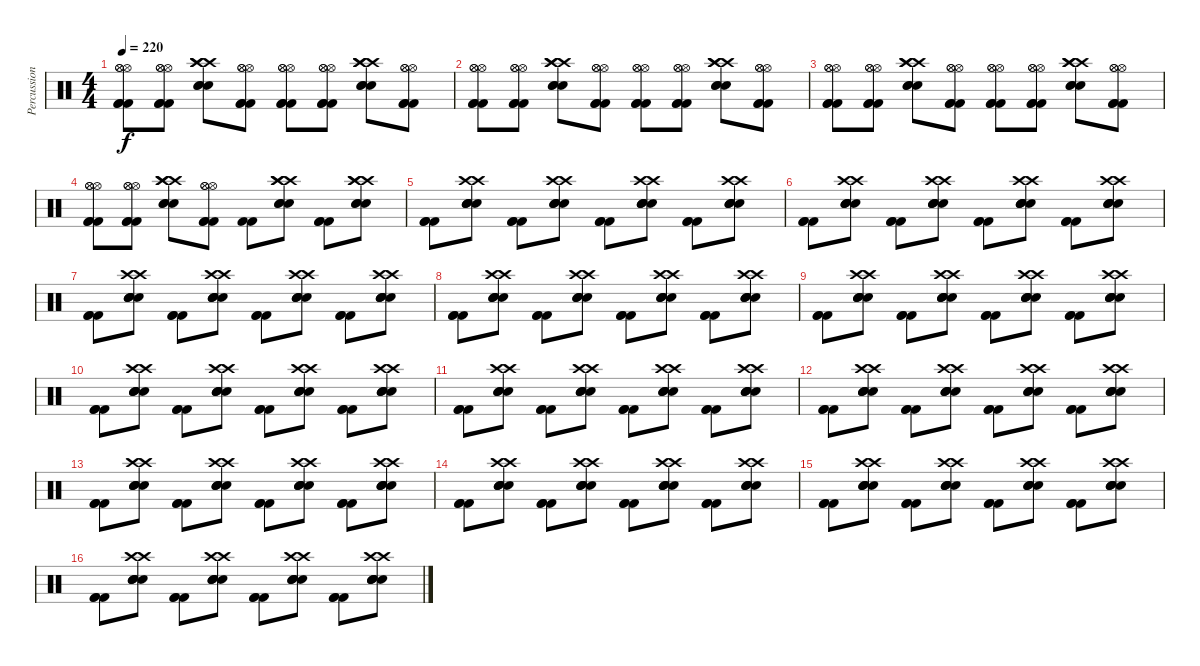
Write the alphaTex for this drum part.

\track ("Percussion" "Percussion") {instrument percussion}
\staff {score}
\articulation defaults
\ts (4 4)
\tempo 220
\clef neutral
\ks c
("Hi-Hat (open)" "Hi-Hat (open)" "Hi-Hat (open)" "Kick (hit) 2" "Kick (hit) 2" "Kick (hit) 2").8{dy f} ("Hi-Hat (open)" "Hi-Hat (open)" "Hi-Hat (open)" "Kick (hit) 2" "Kick (hit) 2" "Kick (hit) 2").8 ("Crash high (hit)" "Crash high (hit)" "Crash high (hit)" "Snare (hit) 2" "Snare (hit) 2" "Snare (hit) 2").8 ("Hi-Hat (open)" "Hi-Hat (open)" "Hi-Hat (open)" "Kick (hit) 2" "Kick (hit) 2" "Kick (hit) 2").8 ("Hi-Hat (open)" "Hi-Hat (open)" "Hi-Hat (open)" "Kick (hit) 2" "Kick (hit) 2" "Kick (hit) 2").8 ("Hi-Hat (open)" "Hi-Hat (open)" "Hi-Hat (open)" "Kick (hit) 2" "Kick (hit) 2" "Kick (hit) 2").8 ("Crash high (hit)" "Crash high (hit)" "Crash high (hit)" "Snare (hit) 2" "Snare (hit) 2" "Snare (hit) 2").8 ("Hi-Hat (open)" "Hi-Hat (open)" "Hi-Hat (open)" "Kick (hit) 2" "Kick (hit) 2" "Kick (hit) 2").8 |
("Hi-Hat (open)" "Hi-Hat (open)" "Hi-Hat (open)" "Kick (hit) 2" "Kick (hit) 2" "Kick (hit) 2").8 ("Hi-Hat (open)" "Hi-Hat (open)" "Hi-Hat (open)" "Kick (hit) 2" "Kick (hit) 2" "Kick (hit) 2").8 ("Crash high (hit)" "Crash high (hit)" "Crash high (hit)" "Snare (hit) 2" "Snare (hit) 2" "Snare (hit) 2").8 ("Hi-Hat (open)" "Hi-Hat (open)" "Hi-Hat (open)" "Kick (hit) 2" "Kick (hit) 2" "Kick (hit) 2").8 ("Hi-Hat (open)" "Hi-Hat (open)" "Hi-Hat (open)" "Kick (hit) 2" "Kick (hit) 2" "Kick (hit) 2").8 ("Hi-Hat (open)" "Hi-Hat (open)" "Hi-Hat (open)" "Kick (hit) 2" "Kick (hit) 2" "Kick (hit) 2").8 ("Crash high (hit)" "Crash high (hit)" "Crash high (hit)" "Snare (hit) 2" "Snare (hit) 2" "Snare (hit) 2").8 ("Hi-Hat (open)" "Hi-Hat (open)" "Hi-Hat (open)" "Kick (hit) 2" "Kick (hit) 2" "Kick (hit) 2").8 |
("Hi-Hat (open)" "Hi-Hat (open)" "Hi-Hat (open)" "Kick (hit) 2" "Kick (hit) 2" "Kick (hit) 2").8 ("Hi-Hat (open)" "Hi-Hat (open)" "Hi-Hat (open)" "Kick (hit) 2" "Kick (hit) 2" "Kick (hit) 2").8 ("Crash high (hit)" "Crash high (hit)" "Crash high (hit)" "Snare (hit) 2" "Snare (hit) 2" "Snare (hit) 2").8 ("Hi-Hat (open)" "Hi-Hat (open)" "Hi-Hat (open)" "Kick (hit) 2" "Kick (hit) 2" "Kick (hit) 2").8 ("Hi-Hat (open)" "Hi-Hat (open)" "Hi-Hat (open)" "Kick (hit) 2" "Kick (hit) 2" "Kick (hit) 2").8 ("Hi-Hat (open)" "Hi-Hat (open)" "Hi-Hat (open)" "Kick (hit) 2" "Kick (hit) 2" "Kick (hit) 2").8 ("Crash high (hit)" "Crash high (hit)" "Crash high (hit)" "Snare (hit) 2" "Snare (hit) 2" "Snare (hit) 2").8 ("Hi-Hat (open)" "Hi-Hat (open)" "Hi-Hat (open)" "Kick (hit) 2" "Kick (hit) 2" "Kick (hit) 2").8 |
("Hi-Hat (open)" "Hi-Hat (open)" "Hi-Hat (open)" "Kick (hit) 2" "Kick (hit) 2" "Kick (hit) 2").8 ("Hi-Hat (open)" "Hi-Hat (open)" "Hi-Hat (open)" "Kick (hit) 2" "Kick (hit) 2" "Kick (hit) 2").8 ("Crash high (hit)" "Crash high (hit)" "Crash high (hit)" "Snare (hit) 2" "Snare (hit) 2" "Snare (hit) 2").8 ("Hi-Hat (open)" "Hi-Hat (open)" "Hi-Hat (open)" "Kick (hit) 2" "Kick (hit) 2" "Kick (hit) 2").8 ("Kick (hit) 2" "Kick (hit) 2").8 ("Crash high (hit)" "Crash high (hit)" "Crash high (hit)" "Snare (hit) 2" "Snare (hit) 2" "Snare (hit) 2").8 ("Kick (hit) 2" "Kick (hit) 2" "Kick (hit) 2").8 ("Crash high (hit)" "Crash high (hit)" "Crash high (hit)" "Snare (hit) 2" "Snare (hit) 2" "Snare (hit) 2").8 |
("Kick (hit) 2" "Kick (hit) 2" "Kick (hit) 2").8 ("Snare (hit) 2" "Crash high (hit)" "Crash high (hit)" "Snare (hit) 2" "Snare (hit) 2" "Snare (hit) 2").8 ("Kick (hit) 2" "Kick (hit) 2" "Kick (hit) 2").8 ("Snare (hit) 2" "Crash high (hit)" "Crash high (hit)" "Snare (hit) 2" "Snare (hit) 2" "Snare (hit) 2").8 ("Kick (hit) 2" "Kick (hit) 2" "Kick (hit) 2").8 ("Snare (hit) 2" "Crash high (hit)" "Crash high (hit)" "Snare (hit) 2" "Snare (hit) 2" "Snare (hit) 2").8 ("Kick (hit) 2" "Kick (hit) 2" "Kick (hit) 2").8 ("Snare (hit) 2" "Crash high (hit)" "Crash high (hit)" "Snare (hit) 2" "Snare (hit) 2" "Snare (hit) 2").8 |
("Kick (hit) 2" "Kick (hit) 2" "Kick (hit) 2").8 ("Snare (hit) 2" "Crash high (hit)" "Crash high (hit)" "Snare (hit) 2" "Snare (hit) 2" "Snare (hit) 2").8 ("Kick (hit) 2" "Kick (hit) 2" "Kick (hit) 2").8 ("Snare (hit) 2" "Crash high (hit)" "Crash high (hit)" "Snare (hit) 2" "Snare (hit) 2" "Snare (hit) 2").8 ("Kick (hit) 2" "Kick (hit) 2" "Kick (hit) 2").8 ("Snare (hit) 2" "Crash high (hit)" "Crash high (hit)" "Snare (hit) 2" "Snare (hit) 2" "Snare (hit) 2").8 ("Kick (hit) 2" "Kick (hit) 2" "Kick (hit) 2").8 ("Snare (hit) 2" "Crash high (hit)" "Crash high (hit)" "Snare (hit) 2" "Snare (hit) 2" "Snare (hit) 2").8 |
("Kick (hit) 2" "Kick (hit) 2" "Kick (hit) 2").8 ("Snare (hit) 2" "Crash high (hit)" "Crash high (hit)" "Snare (hit) 2" "Snare (hit) 2" "Snare (hit) 2").8 ("Kick (hit) 2" "Kick (hit) 2" "Kick (hit) 2").8 ("Snare (hit) 2" "Crash high (hit)" "Crash high (hit)" "Snare (hit) 2" "Snare (hit) 2" "Snare (hit) 2").8 ("Kick (hit) 2" "Kick (hit) 2" "Kick (hit) 2").8 ("Snare (hit) 2" "Crash high (hit)" "Crash high (hit)" "Snare (hit) 2" "Snare (hit) 2" "Snare (hit) 2").8 ("Kick (hit) 2" "Kick (hit) 2" "Kick (hit) 2").8 ("Snare (hit) 2" "Crash high (hit)" "Crash high (hit)" "Snare (hit) 2" "Snare (hit) 2" "Snare (hit) 2").8 |
("Kick (hit) 2" "Kick (hit) 2" "Kick (hit) 2").8 ("Snare (hit) 2" "Crash high (hit)" "Crash high (hit)" "Snare (hit) 2" "Snare (hit) 2" "Snare (hit) 2").8 ("Kick (hit) 2" "Kick (hit) 2" "Kick (hit) 2").8 ("Snare (hit) 2" "Crash high (hit)" "Crash high (hit)" "Snare (hit) 2" "Snare (hit) 2" "Snare (hit) 2").8 ("Kick (hit) 2" "Kick (hit) 2" "Kick (hit) 2").8 ("Snare (hit) 2" "Crash high (hit)" "Crash high (hit)" "Snare (hit) 2" "Snare (hit) 2" "Snare (hit) 2").8 ("Kick (hit) 2" "Kick (hit) 2" "Kick (hit) 2").8 ("Snare (hit) 2" "Crash high (hit)" "Crash high (hit)" "Snare (hit) 2" "Snare (hit) 2" "Snare (hit) 2").8 |
("Kick (hit) 2" "Kick (hit) 2" "Kick (hit) 2").8 ("Snare (hit) 2" "Crash high (hit)" "Crash high (hit)" "Snare (hit) 2" "Snare (hit) 2" "Snare (hit) 2").8 ("Kick (hit) 2" "Kick (hit) 2" "Kick (hit) 2").8 ("Snare (hit) 2" "Crash high (hit)" "Crash high (hit)" "Snare (hit) 2" "Snare (hit) 2" "Snare (hit) 2").8 ("Kick (hit) 2" "Kick (hit) 2" "Kick (hit) 2").8 ("Snare (hit) 2" "Crash high (hit)" "Crash high (hit)" "Snare (hit) 2" "Snare (hit) 2" "Snare (hit) 2").8 ("Kick (hit) 2" "Kick (hit) 2" "Kick (hit) 2").8 ("Snare (hit) 2" "Crash high (hit)" "Crash high (hit)" "Snare (hit) 2" "Snare (hit) 2" "Snare (hit) 2").8 |
("Kick (hit) 2" "Kick (hit) 2" "Kick (hit) 2").8 ("Snare (hit) 2" "Crash high (hit)" "Crash high (hit)" "Snare (hit) 2" "Snare (hit) 2" "Snare (hit) 2").8 ("Kick (hit) 2" "Kick (hit) 2" "Kick (hit) 2").8 ("Snare (hit) 2" "Crash high (hit)" "Crash high (hit)" "Snare (hit) 2" "Snare (hit) 2" "Snare (hit) 2").8 ("Kick (hit) 2" "Kick (hit) 2" "Kick (hit) 2").8 ("Snare (hit) 2" "Crash high (hit)" "Crash high (hit)" "Snare (hit) 2" "Snare (hit) 2" "Snare (hit) 2").8 ("Kick (hit) 2" "Kick (hit) 2" "Kick (hit) 2").8 ("Snare (hit) 2" "Crash high (hit)" "Crash high (hit)" "Snare (hit) 2" "Snare (hit) 2" "Snare (hit) 2").8 |
("Kick (hit) 2" "Kick (hit) 2" "Kick (hit) 2").8 ("Snare (hit) 2" "Crash high (hit)" "Crash high (hit)" "Snare (hit) 2" "Snare (hit) 2" "Snare (hit) 2").8 ("Kick (hit) 2" "Kick (hit) 2" "Kick (hit) 2").8 ("Snare (hit) 2" "Crash high (hit)" "Crash high (hit)" "Snare (hit) 2" "Snare (hit) 2" "Snare (hit) 2").8 ("Kick (hit) 2" "Kick (hit) 2" "Kick (hit) 2").8 ("Snare (hit) 2" "Crash high (hit)" "Crash high (hit)" "Snare (hit) 2" "Snare (hit) 2" "Snare (hit) 2").8 ("Kick (hit) 2" "Kick (hit) 2" "Kick (hit) 2").8 ("Snare (hit) 2" "Crash high (hit)" "Crash high (hit)" "Snare (hit) 2" "Snare (hit) 2" "Snare (hit) 2").8 |
("Kick (hit) 2" "Kick (hit) 2" "Kick (hit) 2").8 ("Snare (hit) 2" "Crash high (hit)" "Crash high (hit)" "Snare (hit) 2" "Snare (hit) 2" "Snare (hit) 2").8 ("Kick (hit) 2" "Kick (hit) 2" "Kick (hit) 2").8 ("Snare (hit) 2" "Crash high (hit)" "Crash high (hit)" "Snare (hit) 2" "Snare (hit) 2" "Snare (hit) 2").8 ("Kick (hit) 2" "Kick (hit) 2" "Kick (hit) 2").8 ("Snare (hit) 2" "Crash high (hit)" "Crash high (hit)" "Snare (hit) 2" "Snare (hit) 2" "Snare (hit) 2").8 ("Kick (hit) 2" "Kick (hit) 2" "Kick (hit) 2").8 ("Snare (hit) 2" "Crash high (hit)" "Crash high (hit)" "Snare (hit) 2" "Snare (hit) 2" "Snare (hit) 2").8 |
("Kick (hit) 2" "Kick (hit) 2" "Kick (hit) 2").8 ("Snare (hit) 2" "Crash high (hit)" "Crash high (hit)" "Snare (hit) 2" "Snare (hit) 2" "Snare (hit) 2").8 ("Kick (hit) 2" "Kick (hit) 2" "Kick (hit) 2").8 ("Snare (hit) 2" "Crash high (hit)" "Crash high (hit)" "Snare (hit) 2" "Snare (hit) 2" "Snare (hit) 2").8 ("Kick (hit) 2" "Kick (hit) 2" "Kick (hit) 2").8 ("Snare (hit) 2" "Crash high (hit)" "Crash high (hit)" "Snare (hit) 2" "Snare (hit) 2" "Snare (hit) 2").8 ("Kick (hit) 2" "Kick (hit) 2" "Kick (hit) 2").8 ("Snare (hit) 2" "Crash high (hit)" "Crash high (hit)" "Snare (hit) 2" "Snare (hit) 2" "Snare (hit) 2").8 |
("Kick (hit) 2" "Kick (hit) 2" "Kick (hit) 2").8 ("Snare (hit) 2" "Crash high (hit)" "Crash high (hit)" "Snare (hit) 2" "Snare (hit) 2" "Snare (hit) 2").8 ("Kick (hit) 2" "Kick (hit) 2" "Kick (hit) 2").8 ("Snare (hit) 2" "Crash high (hit)" "Crash high (hit)" "Snare (hit) 2" "Snare (hit) 2" "Snare (hit) 2").8 ("Kick (hit) 2" "Kick (hit) 2" "Kick (hit) 2").8 ("Snare (hit) 2" "Crash high (hit)" "Crash high (hit)" "Snare (hit) 2" "Snare (hit) 2" "Snare (hit) 2").8 ("Kick (hit) 2" "Kick (hit) 2" "Kick (hit) 2").8 ("Snare (hit) 2" "Crash high (hit)" "Crash high (hit)" "Snare (hit) 2" "Snare (hit) 2" "Snare (hit) 2").8 |
("Kick (hit) 2" "Kick (hit) 2" "Kick (hit) 2").8 ("Snare (hit) 2" "Crash high (hit)" "Crash high (hit)" "Snare (hit) 2" "Snare (hit) 2" "Snare (hit) 2").8 ("Kick (hit) 2" "Kick (hit) 2" "Kick (hit) 2").8 ("Snare (hit) 2" "Crash high (hit)" "Crash high (hit)" "Snare (hit) 2" "Snare (hit) 2" "Snare (hit) 2").8 ("Kick (hit) 2" "Kick (hit) 2" "Kick (hit) 2").8 ("Snare (hit) 2" "Crash high (hit)" "Crash high (hit)" "Snare (hit) 2" "Snare (hit) 2" "Snare (hit) 2").8 ("Kick (hit) 2" "Kick (hit) 2" "Kick (hit) 2").8 ("Snare (hit) 2" "Crash high (hit)" "Crash high (hit)" "Snare (hit) 2" "Snare (hit) 2" "Snare (hit) 2").8 |
("Kick (hit) 2" "Kick (hit) 2" "Kick (hit) 2").8 ("Snare (hit) 2" "Crash high (hit)" "Crash high (hit)" "Snare (hit) 2" "Snare (hit) 2" "Snare (hit) 2").8 ("Kick (hit) 2" "Kick (hit) 2" "Kick (hit) 2").8 ("Snare (hit) 2" "Crash high (hit)" "Crash high (hit)" "Snare (hit) 2" "Snare (hit) 2" "Snare (hit) 2").8 ("Kick (hit) 2" "Kick (hit) 2" "Kick (hit) 2").8 ("Snare (hit) 2" "Crash high (hit)" "Crash high (hit)" "Snare (hit) 2" "Snare (hit) 2" "Snare (hit) 2").8 ("Kick (hit) 2" "Kick (hit) 2" "Kick (hit) 2").8 ("Snare (hit) 2" "Crash high (hit)" "Crash high (hit)" "Snare (hit) 2" "Snare (hit) 2" "Snare (hit) 2").8
